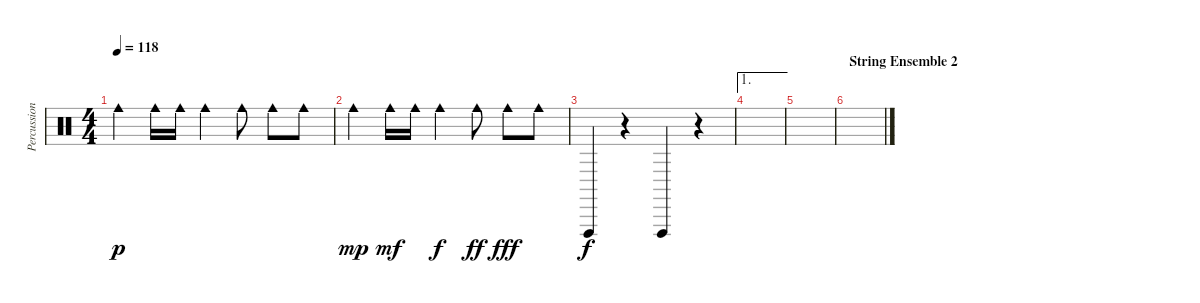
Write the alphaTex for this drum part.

\track ("Percussion" "Percussion") {instrument percussion}
\staff {score}
\articulation defaults
\ts (4 4)
\tempo 118
\clef neutral
\ks c "Cowbell medium (hit)".4{dy p} "Cowbell medium (hit)".16 "Cowbell medium (hit)".16 "Cowbell medium (hit)".4 "Cowbell medium (hit)".8 "Cowbell medium (hit)".8 "Cowbell medium (hit)".8
|
"Cowbell medium (hit)".4{dy mp} "Cowbell medium (hit)".16{dy mf} "Cowbell medium (hit)".16 "Cowbell medium (hit)".4{dy f} "Cowbell medium (hit)".8{dy ff} "Cowbell medium (hit)".8{dy fff} "Cowbell medium (hit)".8 |
"Vibraslap (hit)".4{dy f} r.4 "Vibraslap (hit)".4 r.4 |
\ae 1
|
|
\section ("" "String Ensemble 2")
